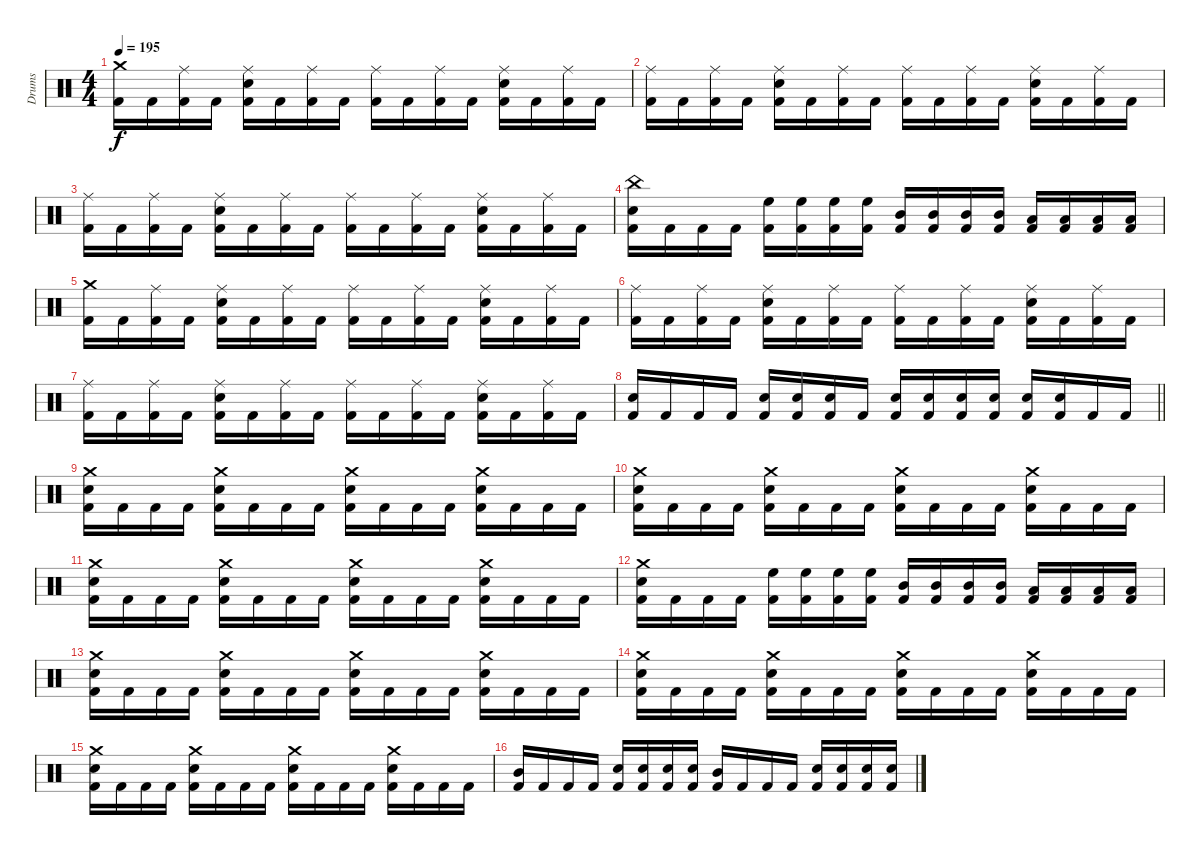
\track ("Drums" "Drums") {instrument percussion}
\staff {score}
\articulation defaults
\ts (4 4)
\tempo 195
\clef neutral
\ks c
("Crash medium (hit)" "Kick (hit) 2").16{dy f} "Kick (hit) 2".16 ("Ride (middle)" "Kick (hit) 2").16 "Kick (hit) 2".16 ("Ride (middle)" "Snare (hit) 2" "Kick (hit) 2").16 "Kick (hit) 2".16 ("Ride (middle)" "Kick (hit) 2").16 "Kick (hit) 2".16 ("Ride (middle)" "Kick (hit) 2").16 "Kick (hit) 2".16 ("Ride (middle)" "Kick (hit) 2").16 "Kick (hit) 2".16 ("Ride (middle)" "Snare (hit) 2" "Kick (hit) 2").16 "Kick (hit) 2".16 ("Ride (middle)" "Kick (hit) 2").16 "Kick (hit) 2".16 |
("Ride (middle)" "Kick (hit) 2").16 "Kick (hit) 2".16 ("Ride (middle)" "Kick (hit) 2").16 "Kick (hit) 2".16 ("Ride (middle)" "Snare (hit) 2" "Kick (hit) 2").16 "Kick (hit) 2".16 ("Ride (middle)" "Kick (hit) 2").16 "Kick (hit) 2".16 ("Ride (middle)" "Kick (hit) 2").16 "Kick (hit) 2".16 ("Ride (middle)" "Kick (hit) 2").16 "Kick (hit) 2".16 ("Ride (middle)" "Snare (hit) 2" "Kick (hit) 2").16 "Kick (hit) 2".16 ("Ride (middle)" "Kick (hit) 2").16 "Kick (hit) 2".16 |
("Ride (middle)" "Kick (hit) 2").16 "Kick (hit) 2".16 ("Ride (middle)" "Kick (hit) 2").16 "Kick (hit) 2".16 ("Ride (middle)" "Snare (hit) 2" "Kick (hit) 2").16 "Kick (hit) 2".16 ("Ride (middle)" "Kick (hit) 2").16 "Kick (hit) 2".16 ("Ride (middle)" "Kick (hit) 2").16 "Kick (hit) 2".16 ("Ride (middle)" "Kick (hit) 2").16 "Kick (hit) 2".16 ("Ride (middle)" "Snare (hit) 2" "Kick (hit) 2").16 "Kick (hit) 2".16 ("Ride (middle)" "Kick (hit) 2").16 "Kick (hit) 2".16 |
("China (hit)" "Snare (hit) 2" "Kick (hit) 2").16 "Kick (hit) 2".16 "Kick (hit) 2".16 "Kick (hit) 2".16 ("High Floor Tom (hit)" "Kick (hit) 2").16 ("High Floor Tom (hit)" "Kick (hit) 2").16 ("High Floor Tom (hit)" "Kick (hit) 2").16 ("High Floor Tom (hit)" "Kick (hit) 2").16 ("Mid Tom (hit)" "Kick (hit) 2").16 ("Mid Tom (hit)" "Kick (hit) 2").16 ("Mid Tom (hit)" "Kick (hit) 2").16 ("Mid Tom (hit)" "Kick (hit) 2").16 ("Low Tom (hit)" "Kick (hit) 2").16 ("Low Tom (hit)" "Kick (hit) 2").16 ("Low Tom (hit)" "Kick (hit) 2").16 ("Low Tom (hit)" "Kick (hit) 2").16 |
("Crash medium (hit)" "Kick (hit) 2").16 "Kick (hit) 2".16 ("Ride (middle)" "Kick (hit) 2").16 "Kick (hit) 2".16 ("Ride (middle)" "Snare (hit) 2" "Kick (hit) 2").16 "Kick (hit) 2".16 ("Ride (middle)" "Kick (hit) 2").16 "Kick (hit) 2".16 ("Ride (middle)" "Kick (hit) 2").16 "Kick (hit) 2".16 ("Ride (middle)" "Kick (hit) 2").16 "Kick (hit) 2".16 ("Ride (middle)" "Snare (hit) 2" "Kick (hit) 2").16 "Kick (hit) 2".16 ("Ride (middle)" "Kick (hit) 2").16 "Kick (hit) 2".16 |
("Ride (middle)" "Kick (hit) 2").16 "Kick (hit) 2".16 ("Ride (middle)" "Kick (hit) 2").16 "Kick (hit) 2".16 ("Ride (middle)" "Snare (hit) 2" "Kick (hit) 2").16 "Kick (hit) 2".16 ("Ride (middle)" "Kick (hit) 2").16 "Kick (hit) 2".16 ("Ride (middle)" "Kick (hit) 2").16 "Kick (hit) 2".16 ("Ride (middle)" "Kick (hit) 2").16 "Kick (hit) 2".16 ("Ride (middle)" "Snare (hit) 2" "Kick (hit) 2").16 "Kick (hit) 2".16 ("Ride (middle)" "Kick (hit) 2").16 "Kick (hit) 2".16 |
("Ride (middle)" "Kick (hit) 2").16 "Kick (hit) 2".16 ("Ride (middle)" "Kick (hit) 2").16 "Kick (hit) 2".16 ("Ride (middle)" "Snare (hit) 2" "Kick (hit) 2").16 "Kick (hit) 2".16 ("Ride (middle)" "Kick (hit) 2").16 "Kick (hit) 2".16 ("Ride (middle)" "Kick (hit) 2").16 "Kick (hit) 2".16 ("Ride (middle)" "Kick (hit) 2").16 "Kick (hit) 2".16 ("Ride (middle)" "Snare (hit) 2" "Kick (hit) 2").16 "Kick (hit) 2".16 ("Ride (middle)" "Kick (hit) 2").16 "Kick (hit) 2".16 |
\barLineRight lightlight
("Snare (hit) 2" "Kick (hit) 2").16 "Kick (hit) 2".16 "Kick (hit) 2".16 "Kick (hit) 2".16 ("Snare (hit) 2" "Kick (hit) 2").16 ("Snare (hit) 2" "Kick (hit) 2").16 ("Snare (hit) 2" "Kick (hit) 2").16 "Kick (hit) 2".16 ("Snare (hit) 2" "Kick (hit) 2").16 ("Snare (hit) 2" "Kick (hit) 2").16 ("Snare (hit) 2" "Kick (hit) 2").16 ("Snare (hit) 2" "Kick (hit) 2").16 ("Snare (hit) 2" "Kick (hit) 2").16 ("Snare (hit) 2" "Kick (hit) 2").16 "Kick (hit) 2".16 "Kick (hit) 2".16 |
("Crash medium (hit)" "Snare (hit) 2" "Kick (hit) 2").16 "Kick (hit) 2".16 "Kick (hit) 2".16 "Kick (hit) 2".16 ("Crash medium (hit)" "Snare (hit) 2" "Kick (hit) 2").16 "Kick (hit) 2".16 "Kick (hit) 2".16 "Kick (hit) 2".16 ("Crash medium (hit)" "Snare (hit) 2" "Kick (hit) 2").16 "Kick (hit) 2".16 "Kick (hit) 2".16 "Kick (hit) 2".16 ("Crash medium (hit)" "Snare (hit) 2" "Kick (hit) 2").16 "Kick (hit) 2".16 "Kick (hit) 2".16 "Kick (hit) 2".16 |
("Crash medium (hit)" "Snare (hit) 2" "Kick (hit) 2").16 "Kick (hit) 2".16 "Kick (hit) 2".16 "Kick (hit) 2".16 ("Crash medium (hit)" "Snare (hit) 2" "Kick (hit) 2").16 "Kick (hit) 2".16 "Kick (hit) 2".16 "Kick (hit) 2".16 ("Crash medium (hit)" "Snare (hit) 2" "Kick (hit) 2").16 "Kick (hit) 2".16 "Kick (hit) 2".16 "Kick (hit) 2".16 ("Crash medium (hit)" "Snare (hit) 2" "Kick (hit) 2").16 "Kick (hit) 2".16 "Kick (hit) 2".16 "Kick (hit) 2".16 |
("Crash medium (hit)" "Snare (hit) 2" "Kick (hit) 2").16 "Kick (hit) 2".16 "Kick (hit) 2".16 "Kick (hit) 2".16 ("Crash medium (hit)" "Snare (hit) 2" "Kick (hit) 2").16 "Kick (hit) 2".16 "Kick (hit) 2".16 "Kick (hit) 2".16 ("Crash medium (hit)" "Snare (hit) 2" "Kick (hit) 2").16 "Kick (hit) 2".16 "Kick (hit) 2".16 "Kick (hit) 2".16 ("Crash medium (hit)" "Snare (hit) 2" "Kick (hit) 2").16 "Kick (hit) 2".16 "Kick (hit) 2".16 "Kick (hit) 2".16 |
("Crash medium (hit)" "Snare (hit) 2" "Kick (hit) 2").16 "Kick (hit) 2".16 "Kick (hit) 2".16 "Kick (hit) 2".16 ("High Floor Tom (hit)" "Kick (hit) 2").16 ("High Floor Tom (hit)" "Kick (hit) 2").16 ("High Floor Tom (hit)" "Kick (hit) 2").16 ("High Floor Tom (hit)" "Kick (hit) 2").16 ("Mid Tom (hit)" "Kick (hit) 2").16 ("Mid Tom (hit)" "Kick (hit) 2").16 ("Mid Tom (hit)" "Kick (hit) 2").16 ("Mid Tom (hit)" "Kick (hit) 2").16 ("Low Tom (hit)" "Kick (hit) 2").16 ("Low Tom (hit)" "Kick (hit) 2").16 ("Low Tom (hit)" "Kick (hit) 2").16 ("Low Tom (hit)" "Kick (hit) 2").16 |
("Crash medium (hit)" "Snare (hit) 2" "Kick (hit) 2").16 "Kick (hit) 2".16 "Kick (hit) 2".16 "Kick (hit) 2".16 ("Crash medium (hit)" "Snare (hit) 2" "Kick (hit) 2").16 "Kick (hit) 2".16 "Kick (hit) 2".16 "Kick (hit) 2".16 ("Crash medium (hit)" "Snare (hit) 2" "Kick (hit) 2").16 "Kick (hit) 2".16 "Kick (hit) 2".16 "Kick (hit) 2".16 ("Crash medium (hit)" "Snare (hit) 2" "Kick (hit) 2").16 "Kick (hit) 2".16 "Kick (hit) 2".16 "Kick (hit) 2".16 |
("Crash medium (hit)" "Snare (hit) 2" "Kick (hit) 2").16 "Kick (hit) 2".16 "Kick (hit) 2".16 "Kick (hit) 2".16 ("Crash medium (hit)" "Snare (hit) 2" "Kick (hit) 2").16 "Kick (hit) 2".16 "Kick (hit) 2".16 "Kick (hit) 2".16 ("Crash medium (hit)" "Snare (hit) 2" "Kick (hit) 2").16 "Kick (hit) 2".16 "Kick (hit) 2".16 "Kick (hit) 2".16 ("Crash medium (hit)" "Snare (hit) 2" "Kick (hit) 2").16 "Kick (hit) 2".16 "Kick (hit) 2".16 "Kick (hit) 2".16 |
("Crash medium (hit)" "Snare (hit) 2" "Kick (hit) 2").16 "Kick (hit) 2".16 "Kick (hit) 2".16 "Kick (hit) 2".16 ("Crash medium (hit)" "Snare (hit) 2" "Kick (hit) 2").16 "Kick (hit) 2".16 "Kick (hit) 2".16 "Kick (hit) 2".16 ("Crash medium (hit)" "Snare (hit) 2" "Kick (hit) 2").16 "Kick (hit) 2".16 "Kick (hit) 2".16 "Kick (hit) 2".16 ("Crash medium (hit)" "Snare (hit) 2" "Kick (hit) 2").16 "Kick (hit) 2".16 "Kick (hit) 2".16 "Kick (hit) 2".16 |
("Mid Tom (hit)" "Kick (hit) 2").16 "Kick (hit) 2".16 "Kick (hit) 2".16 "Kick (hit) 2".16 ("Snare (hit) 2" "Kick (hit) 2").16 ("Snare (hit) 2" "Kick (hit) 2").16 ("Snare (hit) 2" "Kick (hit) 2").16 ("Snare (hit) 2" "Kick (hit) 2").16 ("Mid Tom (hit)" "Kick (hit) 2").16 "Kick (hit) 2".16 "Kick (hit) 2".16 "Kick (hit) 2".16 ("Snare (hit) 2" "Kick (hit) 2").16 ("Snare (hit) 2" "Kick (hit) 2").16 ("Snare (hit) 2" "Kick (hit) 2").16 ("Snare (hit) 2" "Kick (hit) 2").16
